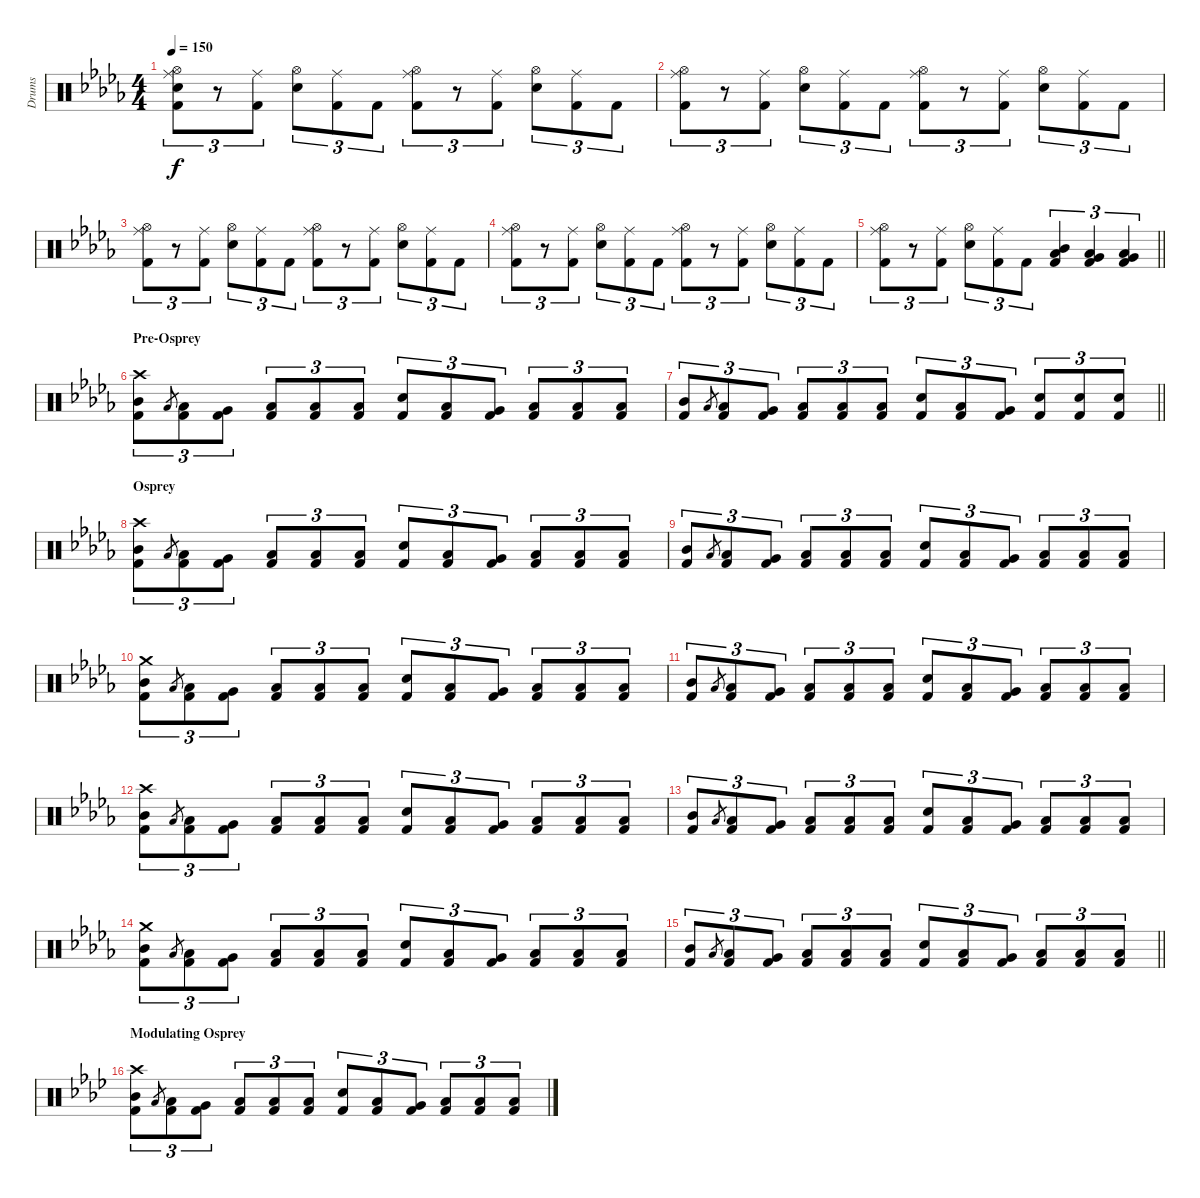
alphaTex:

\track ("Drums" "Drums") {instrument percussion}
\staff {score}
\articulation defaults
\ts (4 4)
\tempo 150
\clef neutral
\ks bbminor
("Snare (hit)" "Hi-Hat (open)" "Ride (middle)" "Kick (hit) 2").8{tu (3 2) dy f} r.8{tu (3 2)} ("Ride (middle)" "Kick (hit) 2").8{tu (3 2)} ("Hi-Hat (open)" "Snare (hit) 2").8{tu (3 2)} ("Ride (middle)" "Kick (hit) 2").8{tu (3 2)} "Kick (hit) 2".8{tu (3 2)} ("Hi-Hat (open)" "Ride (middle)" "Kick (hit) 2").8{tu (3 2)} r.8{tu (3 2)} ("Ride (middle)" "Kick (hit) 2").8{tu (3 2)} ("Hi-Hat (open)" "Snare (hit) 2").8{tu (3 2)} ("Ride (middle)" "Kick (hit) 2").8{tu (3 2)} "Kick (hit) 2".8{tu (3 2)} |
("Hi-Hat (open)" "Ride (middle)" "Kick (hit) 2").8{tu (3 2)} r.8{tu (3 2)} ("Ride (middle)" "Kick (hit) 2").8{tu (3 2)} ("Hi-Hat (open)" "Snare (hit) 2").8{tu (3 2)} ("Ride (middle)" "Kick (hit) 2").8{tu (3 2)} "Kick (hit) 2".8{tu (3 2)} ("Hi-Hat (open)" "Ride (middle)" "Kick (hit) 2").8{tu (3 2)} r.8{tu (3 2)} ("Ride (middle)" "Kick (hit) 2").8{tu (3 2)} ("Hi-Hat (open)" "Snare (hit) 2").8{tu (3 2)} ("Ride (middle)" "Kick (hit) 2").8{tu (3 2)} "Kick (hit) 2".8{tu (3 2)} |
("Hi-Hat (open)" "Ride (middle)" "Kick (hit) 2").8{tu (3 2)} r.8{tu (3 2)} ("Ride (middle)" "Kick (hit) 2").8{tu (3 2)} ("Hi-Hat (open)" "Snare (hit) 2").8{tu (3 2)} ("Ride (middle)" "Kick (hit) 2").8{tu (3 2)} "Kick (hit) 2".8{tu (3 2)} ("Hi-Hat (open)" "Ride (middle)" "Kick (hit) 2").8{tu (3 2)} r.8{tu (3 2)} ("Ride (middle)" "Kick (hit) 2").8{tu (3 2)} ("Hi-Hat (open)" "Snare (hit) 2").8{tu (3 2)} ("Ride (middle)" "Kick (hit) 2").8{tu (3 2)} "Kick (hit) 2".8{tu (3 2)} |
("Hi-Hat (open)" "Ride (middle)" "Kick (hit) 2").8{tu (3 2)} r.8{tu (3 2)} ("Ride (middle)" "Kick (hit) 2").8{tu (3 2)} ("Hi-Hat (open)" "Snare (hit) 2").8{tu (3 2)} ("Ride (middle)" "Kick (hit) 2").8{tu (3 2)} "Kick (hit) 2".8{tu (3 2)} ("Hi-Hat (open)" "Ride (middle)" "Kick (hit) 2").8{tu (3 2)} r.8{tu (3 2)} ("Ride (middle)" "Kick (hit) 2").8{tu (3 2)} ("Hi-Hat (open)" "Snare (hit) 2").8{tu (3 2)} ("Ride (middle)" "Kick (hit) 2").8{tu (3 2)} "Kick (hit) 2".8{tu (3 2)} |
\barLineRight lightlight
("Hi-Hat (open)" "Ride (middle)" "Kick (hit) 2").8{tu (3 2)} r.8{tu (3 2)} ("Ride (middle)" "Kick (hit) 2").8{tu (3 2)} ("Hi-Hat (open)" "Snare (hit) 2").8{tu (3 2)} ("Ride (middle)" "Kick (hit) 2").8{tu (3 2)} "Kick (hit) 2".8{tu (3 2)} ("Mid Tom (hit)" "Low Tom (hit)" "Kick (hit) 2").4{tu (3 2)} ("Low Tom (hit)" "Very Low Tom (hit)" "Kick (hit) 2").4{tu (3 2)} ("Very Low Tom (hit)" "Low Floor Tom (hit)" "Kick (hit) 2").4{tu (3 2)} |
\section ("" "Pre-Osprey")
("Crash high (hit)" "Mid Tom (hit)" "Kick (hit) 2").8{tu (3 2)} "Low Tom (hit)".8{gr} ("Low Tom (hit)" "Kick (hit) 2").8{tu (3 2)} ("Very Low Tom (hit)" "Kick (hit) 2").8{tu (3 2)} ("Low Floor Tom (hit)" "Kick (hit) 2").8{tu (3 2)} ("Low Floor Tom (hit)" "Kick (hit) 2").8{tu (3 2)} ("Low Floor Tom (hit)" "Kick (hit) 2").8{tu (3 2)} ("Snare (hit) 2" "Kick (hit) 2").8{tu (3 2)} ("Low Tom (hit)" "Kick (hit) 2").8{tu (3 2)} ("Very Low Tom (hit)" "Kick (hit) 2").8{tu (3 2)} ("Low Floor Tom (hit)" "Kick (hit) 2").8{tu (3 2)} ("Low Floor Tom (hit)" "Kick (hit) 2").8{tu (3 2)} ("Low Floor Tom (hit)" "Kick (hit) 2").8{tu (3 2)} |
\barLineRight lightlight
("Mid Tom (hit)" "Kick (hit) 2").8{tu (3 2)} "Low Tom (hit)".8{gr} ("Low Tom (hit)" "Kick (hit) 2").8{tu (3 2)} ("Very Low Tom (hit)" "Kick (hit) 2").8{tu (3 2)} ("Low Floor Tom (hit)" "Kick (hit) 2").8{tu (3 2)} ("Low Floor Tom (hit)" "Kick (hit) 2").8{tu (3 2)} ("Low Floor Tom (hit)" "Kick (hit) 2").8{tu (3 2)} ("Snare (hit) 2" "Kick (hit) 2").8{tu (3 2)} ("Low Tom (hit)" "Kick (hit) 2").8{tu (3 2)} ("Very Low Tom (hit)" "Kick (hit) 2").8{tu (3 2)} ("Snare (hit) 2" "Kick (hit) 2").8{tu (3 2)} ("Snare (hit) 2" "Kick (hit) 2").8{tu (3 2)} ("Snare (hit) 2" "Kick (hit) 2").8{tu (3 2)} |
\section ("" "Osprey")
("Crash high (hit)" "Mid Tom (hit)" "Kick (hit) 2").8{tu (3 2)} "Low Tom (hit)".8{gr} ("Low Tom (hit)" "Kick (hit) 2").8{tu (3 2)} ("Very Low Tom (hit)" "Kick (hit) 2").8{tu (3 2)} ("Low Floor Tom (hit)" "Kick (hit) 2").8{tu (3 2)} ("Low Floor Tom (hit)" "Kick (hit) 2").8{tu (3 2)} ("Low Floor Tom (hit)" "Kick (hit) 2").8{tu (3 2)} ("Snare (hit) 2" "Kick (hit) 2").8{tu (3 2)} ("Low Tom (hit)" "Kick (hit) 2").8{tu (3 2)} ("Very Low Tom (hit)" "Kick (hit) 2").8{tu (3 2)} ("Low Floor Tom (hit)" "Kick (hit) 2").8{tu (3 2)} ("Low Floor Tom (hit)" "Kick (hit) 2").8{tu (3 2)} ("Low Floor Tom (hit)" "Kick (hit) 2").8{tu (3 2)} |
("Mid Tom (hit)" "Kick (hit) 2").8{tu (3 2)} "Low Tom (hit)".8{gr} ("Low Tom (hit)" "Kick (hit) 2").8{tu (3 2)} ("Very Low Tom (hit)" "Kick (hit) 2").8{tu (3 2)} ("Low Floor Tom (hit)" "Kick (hit) 2").8{tu (3 2)} ("Low Floor Tom (hit)" "Kick (hit) 2").8{tu (3 2)} ("Low Floor Tom (hit)" "Kick (hit) 2").8{tu (3 2)} ("Snare (hit) 2" "Kick (hit) 2").8{tu (3 2)} ("Low Tom (hit)" "Kick (hit) 2").8{tu (3 2)} ("Very Low Tom (hit)" "Kick (hit) 2").8{tu (3 2)} ("Low Floor Tom (hit)" "Kick (hit) 2").8{tu (3 2)} ("Low Floor Tom (hit)" "Kick (hit) 2").8{tu (3 2)} ("Low Floor Tom (hit)" "Kick (hit) 2").8{tu (3 2)} |
("Crash medium (hit)" "Mid Tom (hit)" "Kick (hit) 2").8{tu (3 2)} "Low Tom (hit)".8{gr} ("Low Tom (hit)" "Kick (hit) 2").8{tu (3 2)} ("Very Low Tom (hit)" "Kick (hit) 2").8{tu (3 2)} ("Low Floor Tom (hit)" "Kick (hit) 2").8{tu (3 2)} ("Low Floor Tom (hit)" "Kick (hit) 2").8{tu (3 2)} ("Low Floor Tom (hit)" "Kick (hit) 2").8{tu (3 2)} ("Snare (hit) 2" "Kick (hit) 2").8{tu (3 2)} ("Low Tom (hit)" "Kick (hit) 2").8{tu (3 2)} ("Very Low Tom (hit)" "Kick (hit) 2").8{tu (3 2)} ("Low Floor Tom (hit)" "Kick (hit) 2").8{tu (3 2)} ("Low Floor Tom (hit)" "Kick (hit) 2").8{tu (3 2)} ("Low Floor Tom (hit)" "Kick (hit) 2").8{tu (3 2)} |
("Mid Tom (hit)" "Kick (hit) 2").8{tu (3 2)} "Low Tom (hit)".8{gr} ("Low Tom (hit)" "Kick (hit) 2").8{tu (3 2)} ("Very Low Tom (hit)" "Kick (hit) 2").8{tu (3 2)} ("Low Floor Tom (hit)" "Kick (hit) 2").8{tu (3 2)} ("Low Floor Tom (hit)" "Kick (hit) 2").8{tu (3 2)} ("Low Floor Tom (hit)" "Kick (hit) 2").8{tu (3 2)} ("Snare (hit) 2" "Kick (hit) 2").8{tu (3 2)} ("Low Tom (hit)" "Kick (hit) 2").8{tu (3 2)} ("Very Low Tom (hit)" "Kick (hit) 2").8{tu (3 2)} ("Low Floor Tom (hit)" "Kick (hit) 2").8{tu (3 2)} ("Low Floor Tom (hit)" "Kick (hit) 2").8{tu (3 2)} ("Low Floor Tom (hit)" "Kick (hit) 2").8{tu (3 2)} |
("Crash high (hit)" "Mid Tom (hit)" "Kick (hit) 2").8{tu (3 2)} "Low Tom (hit)".8{gr} ("Low Tom (hit)" "Kick (hit) 2").8{tu (3 2)} ("Very Low Tom (hit)" "Kick (hit) 2").8{tu (3 2)} ("Low Floor Tom (hit)" "Kick (hit) 2").8{tu (3 2)} ("Low Floor Tom (hit)" "Kick (hit) 2").8{tu (3 2)} ("Low Floor Tom (hit)" "Kick (hit) 2").8{tu (3 2)} ("Snare (hit) 2" "Kick (hit) 2").8{tu (3 2)} ("Low Tom (hit)" "Kick (hit) 2").8{tu (3 2)} ("Very Low Tom (hit)" "Kick (hit) 2").8{tu (3 2)} ("Low Floor Tom (hit)" "Kick (hit) 2").8{tu (3 2)} ("Low Floor Tom (hit)" "Kick (hit) 2").8{tu (3 2)} ("Low Floor Tom (hit)" "Kick (hit) 2").8{tu (3 2)} |
("Mid Tom (hit)" "Kick (hit) 2").8{tu (3 2)} "Low Tom (hit)".8{gr} ("Low Tom (hit)" "Kick (hit) 2").8{tu (3 2)} ("Very Low Tom (hit)" "Kick (hit) 2").8{tu (3 2)} ("Low Floor Tom (hit)" "Kick (hit) 2").8{tu (3 2)} ("Low Floor Tom (hit)" "Kick (hit) 2").8{tu (3 2)} ("Low Floor Tom (hit)" "Kick (hit) 2").8{tu (3 2)} ("Snare (hit) 2" "Kick (hit) 2").8{tu (3 2)} ("Low Tom (hit)" "Kick (hit) 2").8{tu (3 2)} ("Very Low Tom (hit)" "Kick (hit) 2").8{tu (3 2)} ("Low Floor Tom (hit)" "Kick (hit) 2").8{tu (3 2)} ("Low Floor Tom (hit)" "Kick (hit) 2").8{tu (3 2)} ("Low Floor Tom (hit)" "Kick (hit) 2").8{tu (3 2)} |
("Crash medium (hit)" "Mid Tom (hit)" "Kick (hit) 2").8{tu (3 2)} "Low Tom (hit)".8{gr} ("Low Tom (hit)" "Kick (hit) 2").8{tu (3 2)} ("Very Low Tom (hit)" "Kick (hit) 2").8{tu (3 2)} ("Low Floor Tom (hit)" "Kick (hit) 2").8{tu (3 2)} ("Low Floor Tom (hit)" "Kick (hit) 2").8{tu (3 2)} ("Low Floor Tom (hit)" "Kick (hit) 2").8{tu (3 2)} ("Snare (hit) 2" "Kick (hit) 2").8{tu (3 2)} ("Low Tom (hit)" "Kick (hit) 2").8{tu (3 2)} ("Very Low Tom (hit)" "Kick (hit) 2").8{tu (3 2)} ("Low Floor Tom (hit)" "Kick (hit) 2").8{tu (3 2)} ("Low Floor Tom (hit)" "Kick (hit) 2").8{tu (3 2)} ("Low Floor Tom (hit)" "Kick (hit) 2").8{tu (3 2)} |
\barLineRight lightlight
("Mid Tom (hit)" "Kick (hit) 2").8{tu (3 2)} "Low Tom (hit)".8{gr} ("Low Tom (hit)" "Kick (hit) 2").8{tu (3 2)} ("Very Low Tom (hit)" "Kick (hit) 2").8{tu (3 2)} ("Low Floor Tom (hit)" "Kick (hit) 2").8{tu (3 2)} ("Low Floor Tom (hit)" "Kick (hit) 2").8{tu (3 2)} ("Low Floor Tom (hit)" "Kick (hit) 2").8{tu (3 2)} ("Snare (hit) 2" "Kick (hit) 2").8{tu (3 2)} ("Low Tom (hit)" "Kick (hit) 2").8{tu (3 2)} ("Very Low Tom (hit)" "Kick (hit) 2").8{tu (3 2)} ("Low Floor Tom (hit)" "Kick (hit) 2").8{tu (3 2)} ("Low Floor Tom (hit)" "Kick (hit) 2").8{tu (3 2)} ("Low Floor Tom (hit)" "Kick (hit) 2").8{tu (3 2)} |
\section ("" "Modulating Osprey")
\ks fminor
("Crash high (hit)" "Mid Tom (hit)" "Kick (hit) 2").8{tu (3 2)} "Low Tom (hit)".8{gr} ("Low Tom (hit)" "Kick (hit) 2").8{tu (3 2)} ("Very Low Tom (hit)" "Kick (hit) 2").8{tu (3 2)} ("Low Floor Tom (hit)" "Kick (hit) 2").8{tu (3 2)} ("Low Floor Tom (hit)" "Kick (hit) 2").8{tu (3 2)} ("Low Floor Tom (hit)" "Kick (hit) 2").8{tu (3 2)} ("Snare (hit) 2" "Kick (hit) 2").8{tu (3 2)} ("Low Tom (hit)" "Kick (hit) 2").8{tu (3 2)} ("Very Low Tom (hit)" "Kick (hit) 2").8{tu (3 2)} ("Low Floor Tom (hit)" "Kick (hit) 2").8{tu (3 2)} ("Low Floor Tom (hit)" "Kick (hit) 2").8{tu (3 2)} ("Low Floor Tom (hit)" "Kick (hit) 2").8{tu (3 2)}
